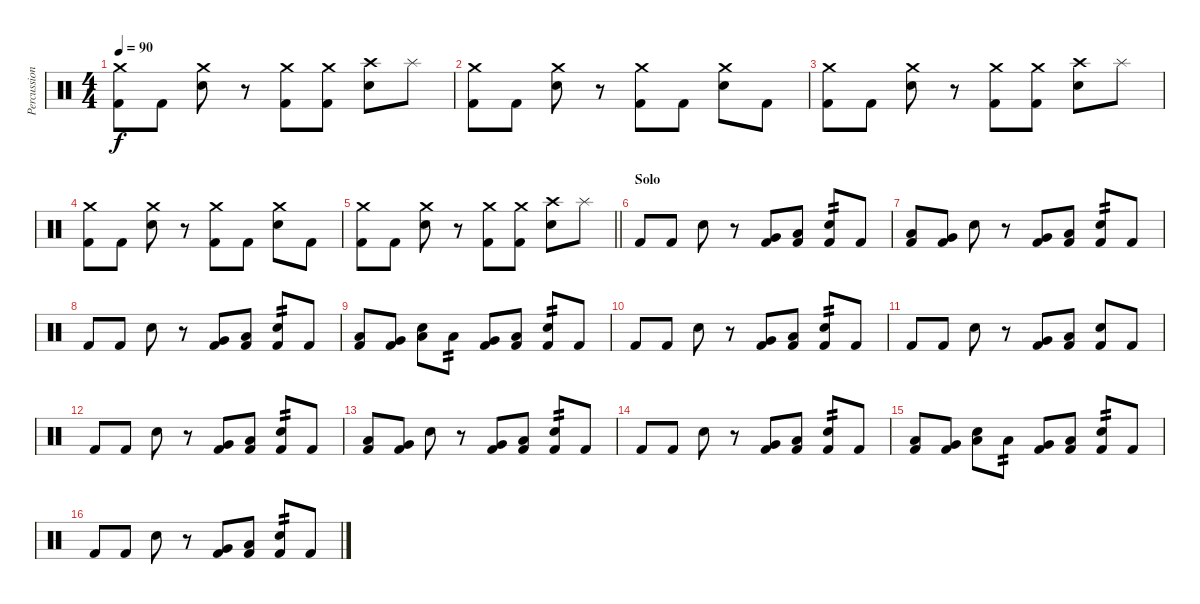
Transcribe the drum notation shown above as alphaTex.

\track ("Percussion" "Percussion") {instrument percussion}
\staff {score}
\articulation defaults
\ts (4 4)
\tempo 90
\clef neutral
\ks c
("Kick (hit) 2" "Crash medium (hit)").8{dy f} "Kick (hit) 2".8 ("Snare (hit) 2" "Crash medium (hit)").8 r.8 ("Kick (hit) 2" "Crash medium (hit)").8 ("Kick (hit) 2" "Crash medium (hit)").8 ("Snare (hit) 2" "Crash high (hit)").8 "Splash (hit)".8 |
("Kick (hit) 2" "Crash medium (hit)").8 "Kick (hit) 2".8 ("Snare (hit) 2" "Crash medium (hit)").8 r.8 ("Kick (hit) 2" "Crash medium (hit)").8 "Kick (hit) 2".8 ("Snare (hit) 2" "Crash medium (hit)").8 "Kick (hit) 2".8 |
("Kick (hit) 2" "Crash medium (hit)").8 "Kick (hit) 2".8 ("Snare (hit) 2" "Crash medium (hit)").8 r.8 ("Kick (hit) 2" "Crash medium (hit)").8 ("Kick (hit) 2" "Crash medium (hit)").8 ("Snare (hit) 2" "Crash high (hit)").8 "Splash (hit)".8 |
("Kick (hit) 2" "Crash medium (hit)").8 "Kick (hit) 2".8 ("Snare (hit) 2" "Crash medium (hit)").8 r.8 ("Kick (hit) 2" "Crash medium (hit)").8 "Kick (hit) 2".8 ("Snare (hit) 2" "Crash medium (hit)").8 "Kick (hit) 2".8 |
\barLineRight lightlight
("Kick (hit) 2" "Crash medium (hit)").8 "Kick (hit) 2".8 ("Snare (hit) 2" "Crash medium (hit)").8 r.8 ("Kick (hit) 2" "Crash medium (hit)").8 ("Kick (hit) 2" "Crash medium (hit)").8 ("Snare (hit) 2" "Crash high (hit)").8 "Splash (hit)".8 |
\section ("" "Solo")
"Kick (hit) 2".8 "Kick (hit) 2".8 "Snare (hit) 2".8 r.8 ("Kick (hit) 2" "Very Low Tom (hit)").8 ("Kick (hit) 2" "Low Tom (hit)").8 ("Kick (hit) 2" "Snare (hit) 2").8{tp 2} "Kick (hit) 2".8 |
("Kick (hit) 2" "Low Floor Tom (hit)").8 ("Kick (hit) 2" "Very Low Tom (hit)").8 "Snare (hit) 2".8 r.8 ("Kick (hit) 2" "Very Low Tom (hit)").8 ("Kick (hit) 2" "Low Tom (hit)").8 ("Kick (hit) 2" "Snare (hit) 2").8{tp 2} "Kick (hit) 2".8 |
"Kick (hit) 2".8 "Kick (hit) 2".8 "Snare (hit) 2".8 r.8 ("Kick (hit) 2" "Very Low Tom (hit)").8 ("Kick (hit) 2" "Low Tom (hit)").8 ("Kick (hit) 2" "Snare (hit) 2").8{tp 2} "Kick (hit) 2".8 |
("Kick (hit) 2" "Low Floor Tom (hit)").8 ("Kick (hit) 2" "Very Low Tom (hit)").8 ("Snare (hit) 2" "Low Tom (hit)").8 "Low Tom (hit)".8{tp 2} ("Kick (hit) 2" "Very Low Tom (hit)").8 ("Kick (hit) 2" "Low Tom (hit)").8 ("Kick (hit) 2" "Snare (hit) 2").8{tp 2} "Kick (hit) 2".8 |
"Kick (hit) 2".8 "Kick (hit) 2".8 "Snare (hit) 2".8 r.8 ("Kick (hit) 2" "Very Low Tom (hit)").8 ("Kick (hit) 2" "Low Tom (hit)").8 ("Kick (hit) 2" "Snare (hit) 2").8{tp 2} "Kick (hit) 2".8 |
"Kick (hit) 2".8 "Kick (hit) 2".8 "Snare (hit) 2".8 r.8 ("Kick (hit) 2" "Very Low Tom (hit)").8 ("Kick (hit) 2" "Low Tom (hit)").8 ("Kick (hit) 2" "Snare (hit) 2").8 "Kick (hit) 2".8 |
"Kick (hit) 2".8 "Kick (hit) 2".8 "Snare (hit) 2".8 r.8 ("Kick (hit) 2" "Very Low Tom (hit)").8 ("Kick (hit) 2" "Low Tom (hit)").8 ("Kick (hit) 2" "Snare (hit) 2").8{tp 2} "Kick (hit) 2".8 |
("Kick (hit) 2" "Low Floor Tom (hit)").8 ("Kick (hit) 2" "Very Low Tom (hit)").8 "Snare (hit) 2".8 r.8 ("Kick (hit) 2" "Very Low Tom (hit)").8 ("Kick (hit) 2" "Low Tom (hit)").8 ("Kick (hit) 2" "Snare (hit) 2").8{tp 2} "Kick (hit) 2".8 |
"Kick (hit) 2".8 "Kick (hit) 2".8 "Snare (hit) 2".8 r.8 ("Kick (hit) 2" "Very Low Tom (hit)").8 ("Kick (hit) 2" "Low Tom (hit)").8 ("Kick (hit) 2" "Snare (hit) 2").8{tp 2} "Kick (hit) 2".8 |
("Kick (hit) 2" "Low Floor Tom (hit)").8 ("Kick (hit) 2" "Very Low Tom (hit)").8 ("Snare (hit) 2" "Low Tom (hit)").8 "Low Tom (hit)".8{tp 2} ("Kick (hit) 2" "Very Low Tom (hit)").8 ("Kick (hit) 2" "Low Tom (hit)").8 ("Kick (hit) 2" "Snare (hit) 2").8{tp 2} "Kick (hit) 2".8 |
"Kick (hit) 2".8 "Kick (hit) 2".8 "Snare (hit) 2".8 r.8 ("Kick (hit) 2" "Very Low Tom (hit)").8 ("Kick (hit) 2" "Low Tom (hit)").8 ("Kick (hit) 2" "Snare (hit) 2").8{tp 2} "Kick (hit) 2".8
